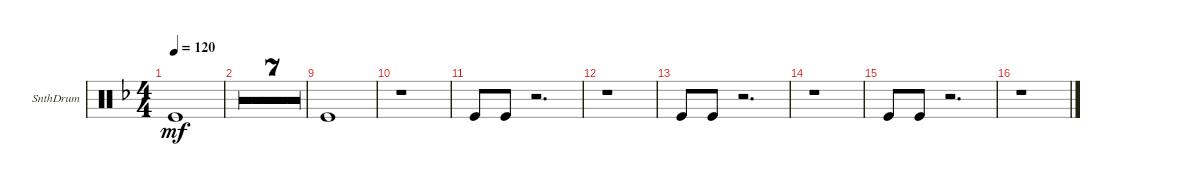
\defaultSystemsLayout 4
\bracketExtendMode groupsimilarinstruments
\multiBarRest
\firstSystemTrackNameOrientation horizontal
\otherSystemsTrackNameOrientation horizontal
\track ("Synth Drum" "SnthDrum") {multiBarRest instrument percussion}
\staff {score}
\articulation defaults
\ts (4 4)
\tempo 120
\clef neutral
\ks dminor "Kick (hit)".1{dy mf}
|
r.1 |
r.1 |
r.1 |
r.1 |
r.1 |
r.1 |
r.1 |
"Kick (hit)".1 |
r.1 |
"Kick (hit)".8 "Kick (hit)".8 r.2{d} |
r.1 |
"Kick (hit)".8 "Kick (hit)".8 r.2{d} |
r.1 |
"Kick (hit)".8 "Kick (hit)".8 r.2{d} |
r.1
